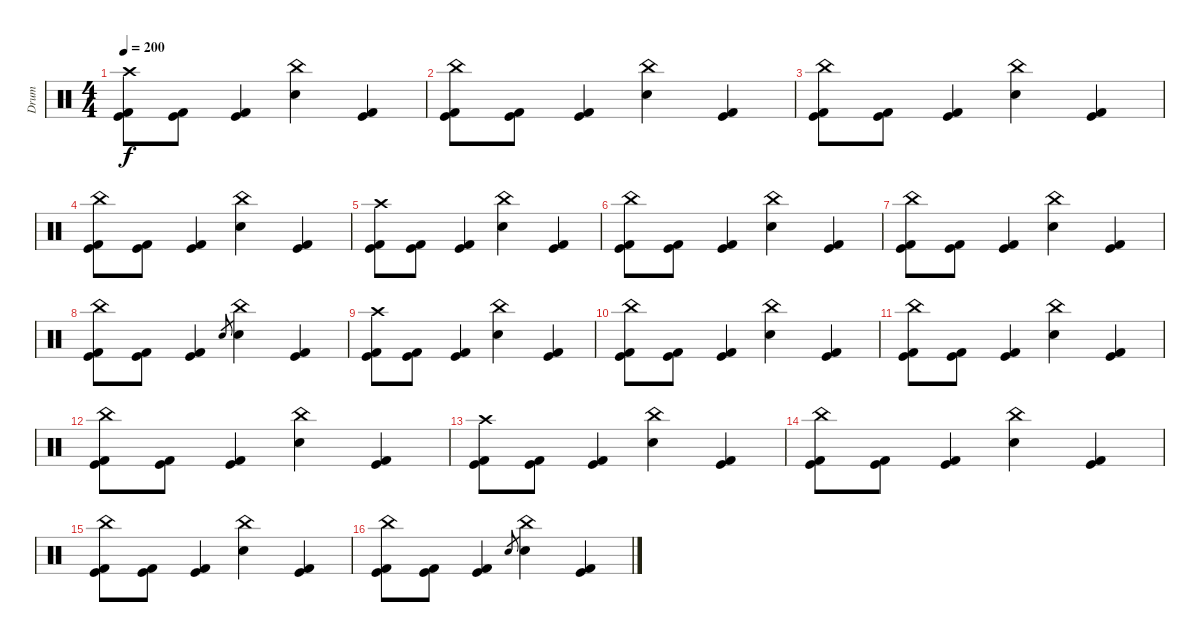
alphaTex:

\track ("Drum" "Drum") {instrument percussion}
\staff {score}
\articulation defaults
\ts (4 4)
\tempo 200
\clef neutral
\ks c
("Crash high (hit)" "Kick (hit)" "Kick (hit) 2").8{dy f} ("Kick (hit)" "Kick (hit) 2").8 ("Kick (hit)" "Kick (hit) 2").4 ("China (hit)" "Electric Snare (hit)").4 ("Kick (hit)" "Kick (hit) 2").4 |
("China (hit)" "Kick (hit)" "Kick (hit) 2").8 ("Kick (hit)" "Kick (hit) 2").8 ("Kick (hit)" "Kick (hit) 2").4 ("China (hit)" "Electric Snare (hit)").4 ("Kick (hit)" "Kick (hit) 2").4 |
("China (hit)" "Kick (hit)" "Kick (hit) 2").8 ("Kick (hit)" "Kick (hit) 2").8 ("Kick (hit)" "Kick (hit) 2").4 ("China (hit)" "Electric Snare (hit)").4 ("Kick (hit)" "Kick (hit) 2").4 |
("China (hit)" "Kick (hit)" "Kick (hit) 2").8 ("Kick (hit)" "Kick (hit) 2").8 ("Kick (hit)" "Kick (hit) 2").4 ("China (hit)" "Electric Snare (hit)").4 ("Kick (hit)" "Kick (hit) 2").4 |
("Crash high (hit)" "Kick (hit)" "Kick (hit) 2").8 ("Kick (hit)" "Kick (hit) 2").8 ("Kick (hit)" "Kick (hit) 2").4 ("China (hit)" "Electric Snare (hit)").4 ("Kick (hit)" "Kick (hit) 2").4 |
("China (hit)" "Kick (hit)" "Kick (hit) 2").8 ("Kick (hit)" "Kick (hit) 2").8 ("Kick (hit)" "Kick (hit) 2").4 ("China (hit)" "Electric Snare (hit)").4 ("Kick (hit)" "Kick (hit) 2").4 |
("China (hit)" "Kick (hit)" "Kick (hit) 2").8 ("Kick (hit)" "Kick (hit) 2").8 ("Kick (hit)" "Kick (hit) 2").4 ("China (hit)" "Electric Snare (hit)").4 ("Kick (hit)" "Kick (hit) 2").4 |
("China (hit)" "Kick (hit)" "Kick (hit) 2").8 ("Kick (hit)" "Kick (hit) 2").8 ("Kick (hit)" "Kick (hit) 2").4 "Electric Snare (hit)".8{gr} ("China (hit)" "Electric Snare (hit)").4 ("Kick (hit)" "Kick (hit) 2").4 |
("Crash high (hit)" "Kick (hit)" "Kick (hit) 2").8 ("Kick (hit)" "Kick (hit) 2").8 ("Kick (hit)" "Kick (hit) 2").4 ("China (hit)" "Electric Snare (hit)").4 ("Kick (hit)" "Kick (hit) 2").4 |
("China (hit)" "Kick (hit)" "Kick (hit) 2").8 ("Kick (hit)" "Kick (hit) 2").8 ("Kick (hit)" "Kick (hit) 2").4 ("China (hit)" "Electric Snare (hit)").4 ("Kick (hit)" "Kick (hit) 2").4 |
("China (hit)" "Kick (hit)" "Kick (hit) 2").8 ("Kick (hit)" "Kick (hit) 2").8 ("Kick (hit)" "Kick (hit) 2").4 ("China (hit)" "Electric Snare (hit)").4 ("Kick (hit)" "Kick (hit) 2").4 |
("China (hit)" "Kick (hit)" "Kick (hit) 2").8 ("Kick (hit)" "Kick (hit) 2").8 ("Kick (hit)" "Kick (hit) 2").4 ("China (hit)" "Electric Snare (hit)").4 ("Kick (hit)" "Kick (hit) 2").4 |
("Crash high (hit)" "Kick (hit)" "Kick (hit) 2").8 ("Kick (hit)" "Kick (hit) 2").8 ("Kick (hit)" "Kick (hit) 2").4 ("China (hit)" "Electric Snare (hit)").4 ("Kick (hit)" "Kick (hit) 2").4 |
("China (hit)" "Kick (hit)" "Kick (hit) 2").8 ("Kick (hit)" "Kick (hit) 2").8 ("Kick (hit)" "Kick (hit) 2").4 ("China (hit)" "Electric Snare (hit)").4 ("Kick (hit)" "Kick (hit) 2").4 |
("China (hit)" "Kick (hit)" "Kick (hit) 2").8 ("Kick (hit)" "Kick (hit) 2").8 ("Kick (hit)" "Kick (hit) 2").4 ("China (hit)" "Electric Snare (hit)").4 ("Kick (hit)" "Kick (hit) 2").4 |
("China (hit)" "Kick (hit)" "Kick (hit) 2").8 ("Kick (hit)" "Kick (hit) 2").8 ("Kick (hit)" "Kick (hit) 2").4 "Electric Snare (hit)".8{gr} ("China (hit)" "Electric Snare (hit)").4 ("Kick (hit)" "Kick (hit) 2").4
